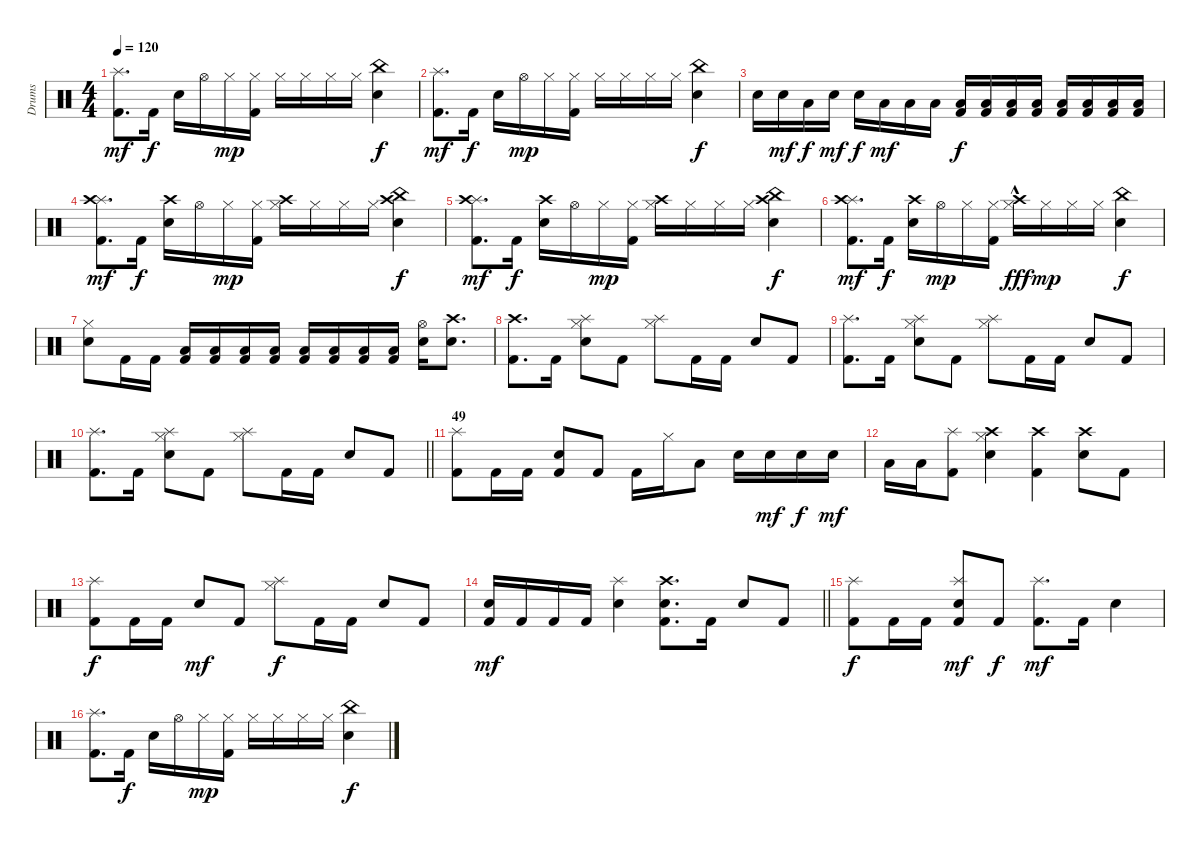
\track ("Drums" "Drums") {instrument percussion}
\staff {score}
\articulation defaults
\ts (4 4)
\tempo 120
\clef neutral
\ks c
("Kick (hit) 2" "Splash (hit)").8{d dy mf} "Kick (hit) 2".16{dy f} "Snare (hit) 2".16 "Hi-Hat (open)".16 "Hi-Hat (closed)".16{dy mp} ("Kick (hit) 2" "Hi-Hat (closed)").16 "Hi-Hat (closed)".16 "Hi-Hat (closed)".16 "Hi-Hat (closed)".16 "Hi-Hat (closed)".16 ("Snare (hit) 2" "China (hit)").4{dy f} |
("Kick (hit) 2" "Splash (hit)").8{d dy mf} "Kick (hit) 2".16{dy f} "Snare (hit) 2".16 "Hi-Hat (open)".16{dy mp} "Hi-Hat (closed)".16 ("Kick (hit) 2" "Hi-Hat (closed)").16 "Hi-Hat (closed)".16 "Hi-Hat (closed)".16 "Hi-Hat (closed)".16 "Hi-Hat (closed)".16 ("Snare (hit) 2" "China (hit)").4{dy f} |
"Snare (hit) 2".16 "Snare (hit) 2".16{dy mf} "Low Tom (hit)".16{dy f} "Snare (hit) 2".16{dy mf} "Snare (hit) 2".16{dy f} "Low Tom (hit)".16{dy mf} "Low Tom (hit)".16 "Low Tom (hit)".16 ("Kick (hit) 2" "Low Tom (hit)").16{dy f} ("Kick (hit) 2" "Low Tom (hit)").16 ("Kick (hit) 2" "Low Tom (hit)").16 ("Kick (hit) 2" "Low Tom (hit)").16 ("Kick (hit) 2" "Low Tom (hit)").16 ("Kick (hit) 2" "Low Tom (hit)").16 ("Kick (hit) 2" "Low Tom (hit)").16 ("Kick (hit) 2" "Low Tom (hit)").16 |
("Kick (hit) 2" "Splash (hit)" "Crash high (hit)").8{d dy mf} "Kick (hit) 2".16{dy f} ("Snare (hit) 2" "Crash high (hit)").16 "Hi-Hat (open)".16 "Hi-Hat (closed)".16{dy mp} ("Kick (hit) 2" "Hi-Hat (closed)").16 ("Hi-Hat (closed)" "Crash high (hit)").16 "Hi-Hat (closed)".16 "Hi-Hat (closed)".16 "Hi-Hat (closed)".16 ("Snare (hit) 2" "China (hit)" "Crash high (hit)").4{dy f} |
("Kick (hit) 2" "Splash (hit)" "Crash high (hit)").8{d dy mf} "Kick (hit) 2".16{dy f} ("Snare (hit) 2" "Crash high (hit)").16 "Hi-Hat (open)".16 "Hi-Hat (closed)".16{dy mp} ("Kick (hit) 2" "Hi-Hat (closed)").16 ("Hi-Hat (closed)" "Crash high (hit)").16 "Hi-Hat (closed)".16 "Hi-Hat (closed)".16 "Hi-Hat (closed)".16 ("Snare (hit) 2" "China (hit)" "Crash high (hit)").4{dy f} |
("Kick (hit) 2" "Splash (hit)" "Crash high (hit)").8{d dy mf} "Kick (hit) 2".16{dy f} ("Snare (hit) 2" "Crash high (hit)").16 "Hi-Hat (open)".16{dy mp} "Hi-Hat (closed)".16 ("Kick (hit) 2" "Hi-Hat (closed)").16 ("Hi-Hat (closed)" "Crash high (hit)"{hac}).16{dy fff} "Hi-Hat (closed)".16{dy mp} "Hi-Hat (closed)".16 "Hi-Hat (closed)".16 ("Snare (hit) 2" "China (hit)").4{dy f} |
("Snare (hit) 2" "Hi-Hat (closed)").8 "Kick (hit) 2".16 "Kick (hit) 2".16 ("Low Tom (hit)" "Kick (hit) 2").16 ("Low Tom (hit)" "Kick (hit) 2").16 ("Low Tom (hit)" "Kick (hit) 2").16 ("Low Tom (hit)" "Kick (hit) 2").16 ("Low Tom (hit)" "Kick (hit) 2").16 ("Low Tom (hit)" "Kick (hit) 2").16 ("Low Tom (hit)" "Kick (hit) 2").16 ("Low Tom (hit)" "Kick (hit) 2").16 ("Snare (hit) 2" "Hi-Hat (open)").16 ("Snare (hit) 2" "Crash high (hit)").8{d} |
("Kick (hit) 2" "Crash high (hit)").8{d} "Kick (hit) 2".16 ("Hi-Hat (closed)" "Snare (hit) 2" "Splash (hit)").8 "Kick (hit) 2".8 ("Hi-Hat (closed)" "Splash (hit)").8 "Kick (hit) 2".16 "Kick (hit) 2".16 "Snare (hit) 2".8 "Kick (hit) 2".8 |
("Splash (hit)" "Kick (hit) 2").8{d} "Kick (hit) 2".16 ("Hi-Hat (closed)" "Snare (hit) 2" "Splash (hit)").8 "Kick (hit) 2".8 ("Hi-Hat (closed)" "Splash (hit)").8 "Kick (hit) 2".16 "Kick (hit) 2".16 "Snare (hit) 2".8 "Kick (hit) 2".8 |
\barLineRight lightlight
("Splash (hit)" "Kick (hit) 2").8{d} "Kick (hit) 2".16 ("Hi-Hat (closed)" "Snare (hit) 2" "Splash (hit)").8 "Kick (hit) 2".8 ("Hi-Hat (closed)" "Splash (hit)").8 "Kick (hit) 2".16 "Kick (hit) 2".16 "Snare (hit) 2".8 "Kick (hit) 2".8 |
\section ("" "49")
("Splash (hit)" "Kick (hit) 2").8 "Kick (hit) 2".16 "Kick (hit) 2".16 ("Snare (hit) 2" "Kick (hit) 2").8 "Kick (hit) 2".8 "Kick (hit) 2".16 "Hi-Hat (closed)".16 "Low Tom (hit)".8 "Snare (hit) 2".16 "Snare (hit) 2".16{dy mf} "Snare (hit) 2".16{dy f} "Snare (hit) 2".16{dy mf} |
"Low Tom (hit)".16 "Low Tom (hit)".16 ("Splash (hit)" "Kick (hit) 2").8 ("Crash high (hit)" "Hi-Hat (closed)" "Snare (hit) 2").4 ("Crash high (hit)" "Kick (hit) 2").4 ("Crash high (hit)" "Snare (hit) 2").8 "Kick (hit) 2".8 |
("Splash (hit)" "Kick (hit) 2").8{dy f} "Kick (hit) 2".16 "Kick (hit) 2".16 "Snare (hit) 2".8{dy mf} "Kick (hit) 2".8 ("Hi-Hat (closed)" "Splash (hit)").8{dy f} "Kick (hit) 2".16 "Kick (hit) 2".16 "Snare (hit) 2".8 "Kick (hit) 2".8 |
\barLineRight lightlight
("Snare (hit) 2" "Kick (hit) 2").16{dy mf} "Kick (hit) 2".16 "Kick (hit) 2".16 "Kick (hit) 2".16 ("Splash (hit)" "Snare (hit) 2").4 ("Crash high (hit)" "Snare (hit) 2" "Kick (hit) 2").8{d} "Kick (hit) 2".16 "Snare (hit) 2".8 "Kick (hit) 2".8 |
("Splash (hit)" "Kick (hit) 2").8{dy f} "Kick (hit) 2".16 "Kick (hit) 2".16 ("Splash (hit)" "Snare (hit) 2" "Kick (hit) 2").8{dy mf} "Kick (hit) 2".8{dy f} ("Splash (hit)" "Kick (hit) 2").8{d dy mf} "Kick (hit) 2".16 "Snare (hit) 2".4 |
("Kick (hit) 2" "Splash (hit)").8{d} "Kick (hit) 2".16{dy f} "Snare (hit) 2".16 "Hi-Hat (open)".16 "Hi-Hat (closed)".16{dy mp} ("Kick (hit) 2" "Hi-Hat (closed)").16 "Hi-Hat (closed)".16 "Hi-Hat (closed)".16 "Hi-Hat (closed)".16 "Hi-Hat (closed)".16 ("Snare (hit) 2" "China (hit)").4{dy f}
